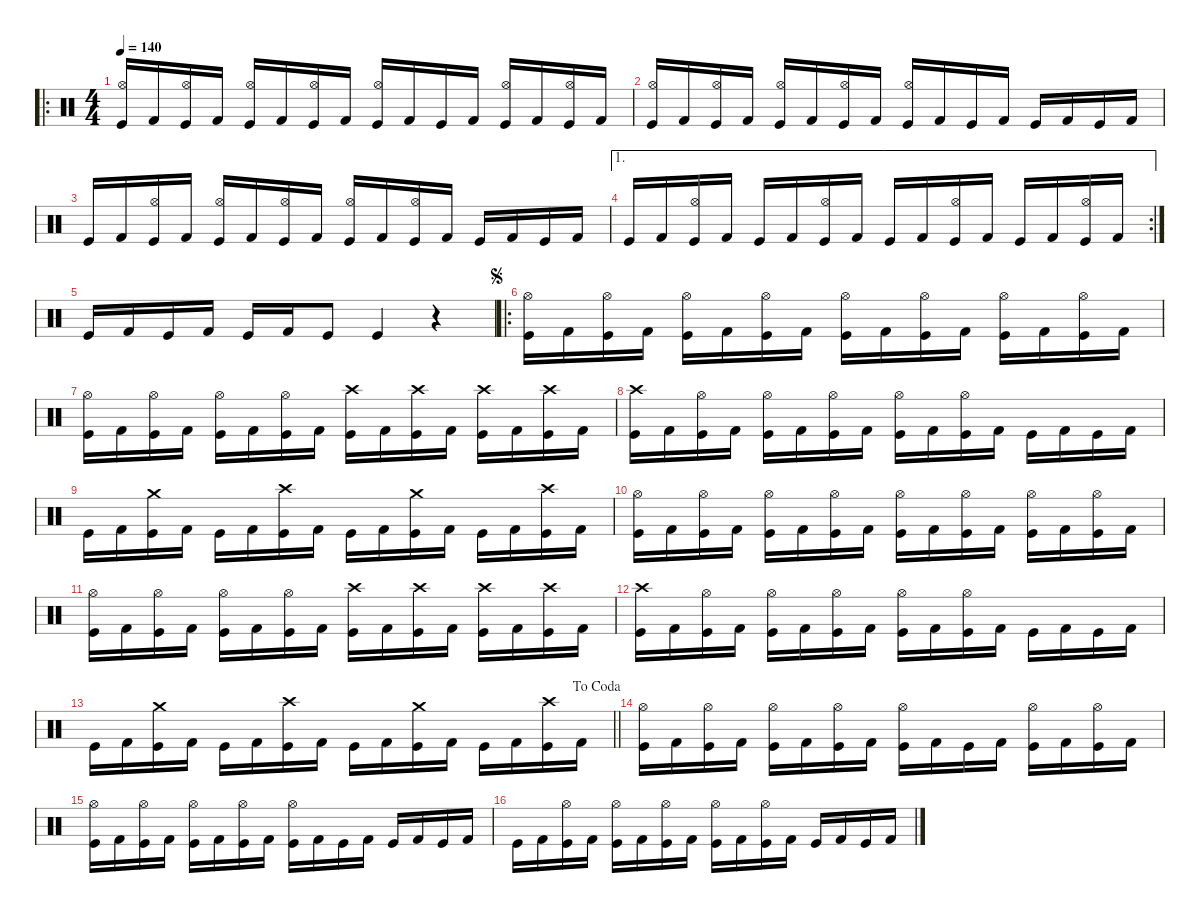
\defaultSystemsLayout 4
\hideDynamics
\bracketExtendMode nobrackets
\singleTrackTrackNamePolicy hidden
\multiTrackTrackNamePolicy hidden
\firstSystemTrackNameMode fullname
\firstSystemTrackNameOrientation horizontal
\otherSystemsTrackNameOrientation horizontal
\track ("Drumkit" "drm.") {instrument percussion}
\staff {score}
\articulation defaults
\ro
\ts (4 4)
\beaming (8 2 2 2 2)
\tempo 140
\clef neutral
\ks c
("Kick (hit)" "Hi-Hat (open)").16{dy mf beam Up} "Kick (hit) 2".16{beam Up} ("Kick (hit)" "Hi-Hat (open)").16{beam Up} "Kick (hit) 2".16{beam Up} ("Kick (hit)" "Hi-Hat (open)").16{beam Up} "Kick (hit) 2".16{beam Up} ("Kick (hit)" "Hi-Hat (open)").16{beam Up} "Kick (hit) 2".16{beam Up} ("Kick (hit)" "Hi-Hat (open)").16{beam Up} "Kick (hit) 2".16{beam Up} "Kick (hit)".16{beam Up} "Kick (hit) 2".16{beam Up} ("Kick (hit)" "Hi-Hat (open)").16{beam Up} "Kick (hit) 2".16{beam Up} ("Kick (hit)" "Hi-Hat (open)").16{beam Up} "Kick (hit) 2".16{beam Up} |
("Kick (hit)" "Hi-Hat (open)").16{beam Up} "Kick (hit) 2".16{beam Up} ("Kick (hit)" "Hi-Hat (open)").16{beam Up} "Kick (hit) 2".16{beam Up} ("Kick (hit)" "Hi-Hat (open)").16{beam Up} "Kick (hit) 2".16{beam Up} ("Kick (hit)" "Hi-Hat (open)").16{beam Up} "Kick (hit) 2".16{beam Up} ("Kick (hit)" "Hi-Hat (open)").16{beam Up} "Kick (hit) 2".16{beam Up} "Kick (hit)".16{beam Up} "Kick (hit) 2".16{beam Up} "Kick (hit)".16{beam Up} "Kick (hit) 2".16{beam Up} "Kick (hit)".16{beam Up} "Kick (hit) 2".16{beam Up} |
"Kick (hit)".16{beam Up} "Kick (hit) 2".16{beam Up} ("Kick (hit)" "Hi-Hat (open)").16{beam Up} "Kick (hit) 2".16{beam Up} ("Kick (hit)" "Hi-Hat (open)").16{beam Up} "Kick (hit) 2".16{beam Up} ("Kick (hit)" "Hi-Hat (open)").16{beam Up} "Kick (hit) 2".16{beam Up} ("Kick (hit)" "Hi-Hat (open)").16{beam Up} "Kick (hit) 2".16{beam Up} ("Kick (hit)" "Hi-Hat (open)").16{beam Up} "Kick (hit) 2".16{beam Up} "Kick (hit)".16{beam Up} "Kick (hit) 2".16{beam Up} "Kick (hit)".16{beam Up} "Kick (hit) 2".16{beam Up} |
\ae 1
\rc 2 "Kick (hit)".16{beam Up} "Kick (hit) 2".16{beam Up}
("Kick (hit)" "Hi-Hat (open)").16{beam Up} "Kick (hit) 2".16{beam Up} "Kick (hit)".16{beam Up} "Kick (hit) 2".16{beam Up} ("Kick (hit)" "Hi-Hat (open)").16{beam Up} "Kick (hit) 2".16{beam Up} "Kick (hit)".16{beam Up} "Kick (hit) 2".16{beam Up} ("Kick (hit)" "Hi-Hat (open)").16{beam Up} "Kick (hit) 2".16{beam Up} "Kick (hit)".16{beam Up} "Kick (hit) 2".16{beam Up} ("Kick (hit)" "Hi-Hat (open)").16{beam Up} "Kick (hit) 2".16{beam Up} |
"Kick (hit)".16{beam Up} "Kick (hit) 2".16{beam Up} "Kick (hit)".16{beam Up} "Kick (hit) 2".16{beam Up} "Kick (hit)".16{beam Up} "Kick (hit) 2".16{beam Up} "Kick (hit)".8{beam Up} "Kick (hit)".4{beam Up} r.4{beam Up} |
\ro
\jump segno
("Kick (hit)" "Hi-Hat (open)").16{beam Down} "Kick (hit) 2".16{beam Down} ("Kick (hit)" "Hi-Hat (open)").16{beam Down} "Kick (hit) 2".16{beam Down} ("Kick (hit)" "Hi-Hat (open)").16{beam Down} "Kick (hit) 2".16{beam Down} ("Kick (hit)" "Hi-Hat (open)").16{beam Down} "Kick (hit) 2".16{beam Down} ("Kick (hit)" "Hi-Hat (open)").16{beam Down} "Kick (hit) 2".16{beam Down} ("Kick (hit)" "Hi-Hat (open)").16{beam Down} "Kick (hit) 2".16{beam Down} ("Kick (hit)" "Hi-Hat (open)").16{beam Down} "Kick (hit) 2".16{beam Down} ("Kick (hit)" "Hi-Hat (open)").16{beam Down} "Kick (hit) 2".16{beam Down} |
("Kick (hit)" "Hi-Hat (open)").16{beam Down} "Kick (hit) 2".16{beam Down} ("Kick (hit)" "Hi-Hat (open)").16{beam Down} "Kick (hit) 2".16{beam Down} ("Kick (hit)" "Hi-Hat (open)").16{beam Down} "Kick (hit) 2".16{beam Down} ("Kick (hit)" "Hi-Hat (open)").16{beam Down} "Kick (hit) 2".16{beam Down} ("Kick (hit)" "Crash high (hit)").16{beam Down} "Kick (hit) 2".16{beam Down} ("Kick (hit)" "Crash high (hit)").16{beam Down} "Kick (hit) 2".16{beam Down} ("Kick (hit)" "Crash high (hit)").16{beam Down} "Kick (hit) 2".16{beam Down} ("Kick (hit)" "Crash high (hit)").16{beam Down} "Kick (hit) 2".16{beam Down} |
("Kick (hit)" "Crash high (hit)").16{beam Down} "Kick (hit) 2".16{beam Down} ("Kick (hit)" "Hi-Hat (open)").16{beam Down} "Kick (hit) 2".16{beam Down} ("Kick (hit)" "Hi-Hat (open)").16{beam Down} "Kick (hit) 2".16{beam Down} ("Kick (hit)" "Hi-Hat (open)").16{beam Down} "Kick (hit) 2".16{beam Down} ("Kick (hit)" "Hi-Hat (open)").16{beam Down} "Kick (hit) 2".16{beam Down} ("Kick (hit)" "Hi-Hat (open)").16{beam Down} "Kick (hit) 2".16{beam Down} "Kick (hit)".16{beam Down} "Kick (hit) 2".16{beam Down} "Kick (hit)".16{beam Down} "Kick (hit) 2".16{beam Down} |
"Kick (hit)".16{beam Down} "Kick (hit) 2".16{beam Down} ("Kick (hit)" "Crash medium (hit)").16{beam Down} "Kick (hit) 2".16{beam Down} "Kick (hit)".16{beam Down} "Kick (hit) 2".16{beam Down} ("Kick (hit)" "Crash high (hit)").16{beam Down} "Kick (hit) 2".16{beam Down} "Kick (hit)".16{beam Down} "Kick (hit) 2".16{beam Down} ("Kick (hit)" "Crash medium (hit)").16{beam Down} "Kick (hit) 2".16{beam Down} "Kick (hit)".16{beam Down} "Kick (hit) 2".16{beam Down} ("Kick (hit)" "Crash high (hit)").16{beam Down} "Kick (hit) 2".16{beam Down} |
("Kick (hit)" "Hi-Hat (open)").16{beam Down} "Kick (hit) 2".16{beam Down} ("Kick (hit)" "Hi-Hat (open)").16{beam Down} "Kick (hit) 2".16{beam Down} ("Kick (hit)" "Hi-Hat (open)").16{beam Down} "Kick (hit) 2".16{beam Down} ("Kick (hit)" "Hi-Hat (open)").16{beam Down} "Kick (hit) 2".16{beam Down} ("Kick (hit)" "Hi-Hat (open)").16{beam Down} "Kick (hit) 2".16{beam Down} ("Kick (hit)" "Hi-Hat (open)").16{beam Down} "Kick (hit) 2".16{beam Down} ("Kick (hit)" "Hi-Hat (open)").16{beam Down} "Kick (hit) 2".16{beam Down} ("Kick (hit)" "Hi-Hat (open)").16{beam Down} "Kick (hit) 2".16{beam Down} |
("Kick (hit)" "Hi-Hat (open)").16{beam Down} "Kick (hit) 2".16{beam Down} ("Kick (hit)" "Hi-Hat (open)").16{beam Down} "Kick (hit) 2".16{beam Down} ("Kick (hit)" "Hi-Hat (open)").16{beam Down} "Kick (hit) 2".16{beam Down} ("Kick (hit)" "Hi-Hat (open)").16{beam Down} "Kick (hit) 2".16{beam Down} ("Kick (hit)" "Crash high (hit)").16{beam Down} "Kick (hit) 2".16{beam Down} ("Kick (hit)" "Crash high (hit)").16{beam Down} "Kick (hit) 2".16{beam Down} ("Kick (hit)" "Crash high (hit)").16{beam Down} "Kick (hit) 2".16{beam Down} ("Kick (hit)" "Crash high (hit)").16{beam Down} "Kick (hit) 2".16{beam Down} |
("Kick (hit)" "Crash high (hit)").16{beam Down} "Kick (hit) 2".16{beam Down} ("Kick (hit)" "Hi-Hat (open)").16{beam Down} "Kick (hit) 2".16{beam Down} ("Kick (hit)" "Hi-Hat (open)").16{beam Down} "Kick (hit) 2".16{beam Down} ("Kick (hit)" "Hi-Hat (open)").16{beam Down} "Kick (hit) 2".16{beam Down} ("Kick (hit)" "Hi-Hat (open)").16{beam Down} "Kick (hit) 2".16{beam Down} ("Kick (hit)" "Hi-Hat (open)").16{beam Down} "Kick (hit) 2".16{beam Down} "Kick (hit)".16{beam Down} "Kick (hit) 2".16{beam Down} "Kick (hit)".16{beam Down} "Kick (hit) 2".16{beam Down} |
\jump dacoda
\barLineRight lightlight "Kick (hit)".16{beam Down} "Kick (hit) 2".16{beam Down}
("Kick (hit)" "Crash medium (hit)").16{beam Down} "Kick (hit) 2".16{beam Down} "Kick (hit)".16{beam Down} "Kick (hit) 2".16{beam Down} ("Kick (hit)" "Crash high (hit)").16{beam Down} "Kick (hit) 2".16{beam Down} "Kick (hit)".16{beam Down} "Kick (hit) 2".16{beam Down} ("Kick (hit)" "Crash medium (hit)").16{beam Down} "Kick (hit) 2".16{beam Down} "Kick (hit)".16{beam Down} "Kick (hit) 2".16{beam Down} ("Kick (hit)" "Crash high (hit)").16{beam Down} "Kick (hit) 2".16{beam Down} |
("Kick (hit)" "Hi-Hat (open)").16{beam Down} "Kick (hit) 2".16{beam Down} ("Kick (hit)" "Hi-Hat (open)").16{beam Down} "Kick (hit) 2".16{beam Down} ("Kick (hit)" "Hi-Hat (open)").16{beam Down} "Kick (hit) 2".16{beam Down} ("Kick (hit)" "Hi-Hat (open)").16{beam Down} "Kick (hit) 2".16{beam Down} ("Kick (hit)" "Hi-Hat (open)").16{beam Down} "Kick (hit) 2".16{beam Down} "Kick (hit)".16{beam Down} "Kick (hit) 2".16{beam Down} ("Kick (hit)" "Hi-Hat (open)").16{beam Down} "Kick (hit) 2".16{beam Down} ("Kick (hit)" "Hi-Hat (open)").16{beam Down} "Kick (hit) 2".16{beam Down} |
("Kick (hit)" "Hi-Hat (open)").16{beam Down} "Kick (hit) 2".16{beam Down} ("Kick (hit)" "Hi-Hat (open)").16{beam Down} "Kick (hit) 2".16{beam Down} ("Kick (hit)" "Hi-Hat (open)").16{beam Down} "Kick (hit) 2".16{beam Down} ("Kick (hit)" "Hi-Hat (open)").16{beam Down} "Kick (hit) 2".16{beam Down} ("Kick (hit)" "Hi-Hat (open)").16{beam Down} "Kick (hit) 2".16{beam Down} "Kick (hit)".16{beam Down} "Kick (hit) 2".16{beam Down} "Kick (hit)".16{beam Up} "Kick (hit) 2".16{beam Up} "Kick (hit)".16{beam Up} "Kick (hit) 2".16{beam Up} |
"Kick (hit)".16{beam Down} "Kick (hit) 2".16{beam Down} ("Kick (hit)" "Hi-Hat (open)").16{beam Down} "Kick (hit) 2".16{beam Down} ("Kick (hit)" "Hi-Hat (open)").16{beam Down} "Kick (hit) 2".16{beam Down} ("Kick (hit)" "Hi-Hat (open)").16{beam Down} "Kick (hit) 2".16{beam Down} ("Kick (hit)" "Hi-Hat (open)").16{beam Down} "Kick (hit) 2".16{beam Down} ("Kick (hit)" "Hi-Hat (open)").16{beam Down} "Kick (hit) 2".16{beam Down} "Kick (hit)".16{beam Up} "Kick (hit) 2".16{beam Up} "Kick (hit)".16{beam Up} "Kick (hit) 2".16{beam Up}
